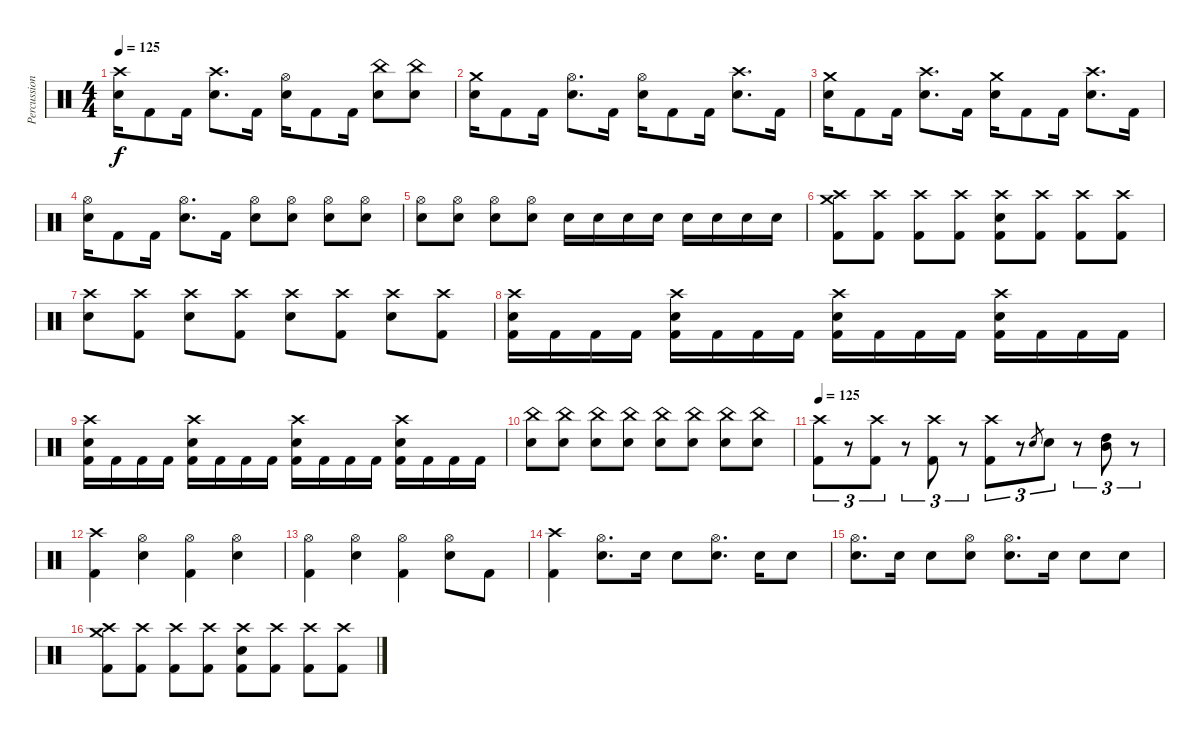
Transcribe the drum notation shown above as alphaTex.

\track ("Percussion" "Percussion") {instrument percussion}
\staff {score}
\articulation defaults
\ts (4 4)
\tempo 125
\clef neutral
\ks c
("Crash high (hit)" "Electric Snare (hit)").16{dy f} "Kick (hit) 2".8 "Kick (hit) 2".16 ("Crash high (hit)" "Electric Snare (hit)").8{d} "Kick (hit) 2".16 ("Hi-Hat (open)" "Electric Snare (hit)").16 "Kick (hit) 2".8 "Kick (hit) 2".16 ("China (hit)" "Electric Snare (hit)").8 ("China (hit)" "Electric Snare (hit)").8 |
("Crash medium (hit)" "Electric Snare (hit)").16 "Kick (hit) 2".8 "Kick (hit) 2".16 ("Hi-Hat (open)" "Electric Snare (hit)").8{d} "Kick (hit) 2".16 ("Hi-Hat (open)" "Electric Snare (hit)").16 "Kick (hit) 2".8 "Kick (hit) 2".16 ("Crash high (hit)" "Electric Snare (hit)").8{d} "Kick (hit) 2".16 |
("Crash medium (hit)" "Electric Snare (hit)").16 "Kick (hit) 2".8 "Kick (hit) 2".16 ("Crash high (hit)" "Electric Snare (hit)").8{d} "Kick (hit) 2".16 ("Crash medium (hit)" "Electric Snare (hit)").16 "Kick (hit) 2".8 "Kick (hit) 2".16 ("Crash high (hit)" "Electric Snare (hit)").8{d} "Kick (hit) 2".16 |
("Hi-Hat (open)" "Electric Snare (hit)").16 "Kick (hit) 2".8 "Kick (hit) 2".16 ("Hi-Hat (open)" "Electric Snare (hit)").8{d} "Kick (hit) 2".16 ("Hi-Hat (open)" "Electric Snare (hit)").8 ("Hi-Hat (open)" "Electric Snare (hit)").8 ("Hi-Hat (open)" "Electric Snare (hit)").8 ("Hi-Hat (open)" "Electric Snare (hit)").8 |
("Hi-Hat (open)" "Electric Snare (hit)").8 ("Hi-Hat (open)" "Electric Snare (hit)").8 ("Hi-Hat (open)" "Electric Snare (hit)").8 ("Hi-Hat (open)" "Electric Snare (hit)").8 "Electric Snare (hit)".16 "Electric Snare (hit)".16 "Electric Snare (hit)".16 "Electric Snare (hit)".16 "Electric Snare (hit)".16 "Electric Snare (hit)".16 "Electric Snare (hit)".16 "Electric Snare (hit)".16 |
("Crash high (hit)" "Crash medium (hit)" "Kick (hit) 2").8 ("Crash high (hit)" "Kick (hit) 2").8 ("Crash high (hit)" "Kick (hit) 2").8 ("Crash high (hit)" "Kick (hit) 2").8 ("Crash high (hit)" "Electric Snare (hit)" "Kick (hit) 2").8 ("Crash high (hit)" "Kick (hit) 2").8 ("Crash high (hit)" "Kick (hit) 2").8 ("Crash high (hit)" "Kick (hit) 2").8 |
("Crash high (hit)" "Electric Snare (hit)").8 ("Crash high (hit)" "Kick (hit) 2").8 ("Crash high (hit)" "Electric Snare (hit)").8 ("Crash high (hit)" "Kick (hit) 2").8 ("Crash high (hit)" "Electric Snare (hit)").8 ("Crash high (hit)" "Kick (hit) 2").8 ("Crash high (hit)" "Electric Snare (hit)").8 ("Crash high (hit)" "Kick (hit) 2").8 |
("Crash high (hit)" "Electric Snare (hit)" "Kick (hit) 2").16 "Kick (hit) 2".16 "Kick (hit) 2".16 "Kick (hit) 2".16 ("Crash high (hit)" "Electric Snare (hit)" "Kick (hit) 2").16 "Kick (hit) 2".16 "Kick (hit) 2".16 "Kick (hit) 2".16 ("Crash high (hit)" "Electric Snare (hit)" "Kick (hit) 2").16 "Kick (hit) 2".16 "Kick (hit) 2".16 "Kick (hit) 2".16 ("Crash high (hit)" "Electric Snare (hit)" "Kick (hit) 2").16 "Kick (hit) 2".16 "Kick (hit) 2".16 "Kick (hit) 2".16 |
("Crash high (hit)" "Electric Snare (hit)" "Kick (hit) 2").16 "Kick (hit) 2".16 "Kick (hit) 2".16 "Kick (hit) 2".16 ("Crash high (hit)" "Electric Snare (hit)" "Kick (hit) 2").16 "Kick (hit) 2".16 "Kick (hit) 2".16 "Kick (hit) 2".16 ("Crash high (hit)" "Electric Snare (hit)" "Kick (hit) 2").16 "Kick (hit) 2".16 "Kick (hit) 2".16 "Kick (hit) 2".16 ("Crash high (hit)" "Electric Snare (hit)" "Kick (hit) 2").16 "Kick (hit) 2".16 "Kick (hit) 2".16 "Kick (hit) 2".16 |
("China (hit)" "Electric Snare (hit)").8{volume 9} ("China (hit)" "Electric Snare (hit)").8{volume 13} ("China (hit)" "Electric Snare (hit)").8 ("China (hit)" "Electric Snare (hit)").8 ("China (hit)" "Electric Snare (hit)").8 ("China (hit)" "Electric Snare (hit)").8 ("China (hit)" "Electric Snare (hit)").8 ("China (hit)" "Electric Snare (hit)").8 |
\tempo 125
("Crash high (hit)" "Kick (hit) 2").8{tu (3 2) volume 13} r.8{tu (3 2) volume 0} ("Crash high (hit)" "Kick (hit) 2").8{tu (3 2) volume 13} r.8{tu (3 2) volume 0} ("Crash high (hit)" "Kick (hit) 2").8{tu (3 2) volume 13} r.8{tu (3 2) volume 0} ("Crash high (hit)" "Kick (hit) 2").8{tu (3 2) volume 13} r.8{tu (3 2)} "Electric Snare (hit)".8{gr} "Electric Snare (hit)".8{tu (3 2) volume 13} r.8{tu (3 2)} ("Mid Tom (hit)" "High Tom (hit)").8{tu (3 2) volume 13} r.8{tu (3 2)} |
("Crash high (hit)" "Kick (hit) 2").4{volume 13} ("Hi-Hat (open)" "Electric Snare (hit)").4 ("Hi-Hat (open)" "Kick (hit) 2").4 ("Hi-Hat (open)" "Electric Snare (hit)").4 |
("Hi-Hat (open)" "Kick (hit) 2").4 ("Hi-Hat (open)" "Electric Snare (hit)").4 ("Hi-Hat (open)" "Kick (hit) 2").4 ("Hi-Hat (open)" "Electric Snare (hit)").8 "Kick (hit) 2".8 |
("Crash high (hit)" "Kick (hit) 2").4 ("Hi-Hat (open)" "Electric Snare (hit)").8{d} "Electric Snare (hit)".16 "Electric Snare (hit)".8 ("Hi-Hat (open)" "Electric Snare (hit)").8{d} "Electric Snare (hit)".16 "Electric Snare (hit)".8 |
("Hi-Hat (open)" "Electric Snare (hit)").8{d} "Electric Snare (hit)".16 "Electric Snare (hit)".8 ("Hi-Hat (open)" "Electric Snare (hit)").8 ("Hi-Hat (open)" "Electric Snare (hit)").8{d} "Electric Snare (hit)".16 "Electric Snare (hit)".8 "Electric Snare (hit)".8 |
("Crash high (hit)" "Crash medium (hit)" "Kick (hit) 2").8 ("Crash high (hit)" "Kick (hit) 2").8 ("Crash high (hit)" "Kick (hit) 2").8 ("Crash high (hit)" "Kick (hit) 2").8 ("Crash high (hit)" "Electric Snare (hit)" "Kick (hit) 2").8 ("Crash high (hit)" "Kick (hit) 2").8 ("Crash high (hit)" "Kick (hit) 2").8 ("Crash high (hit)" "Kick (hit) 2").8
